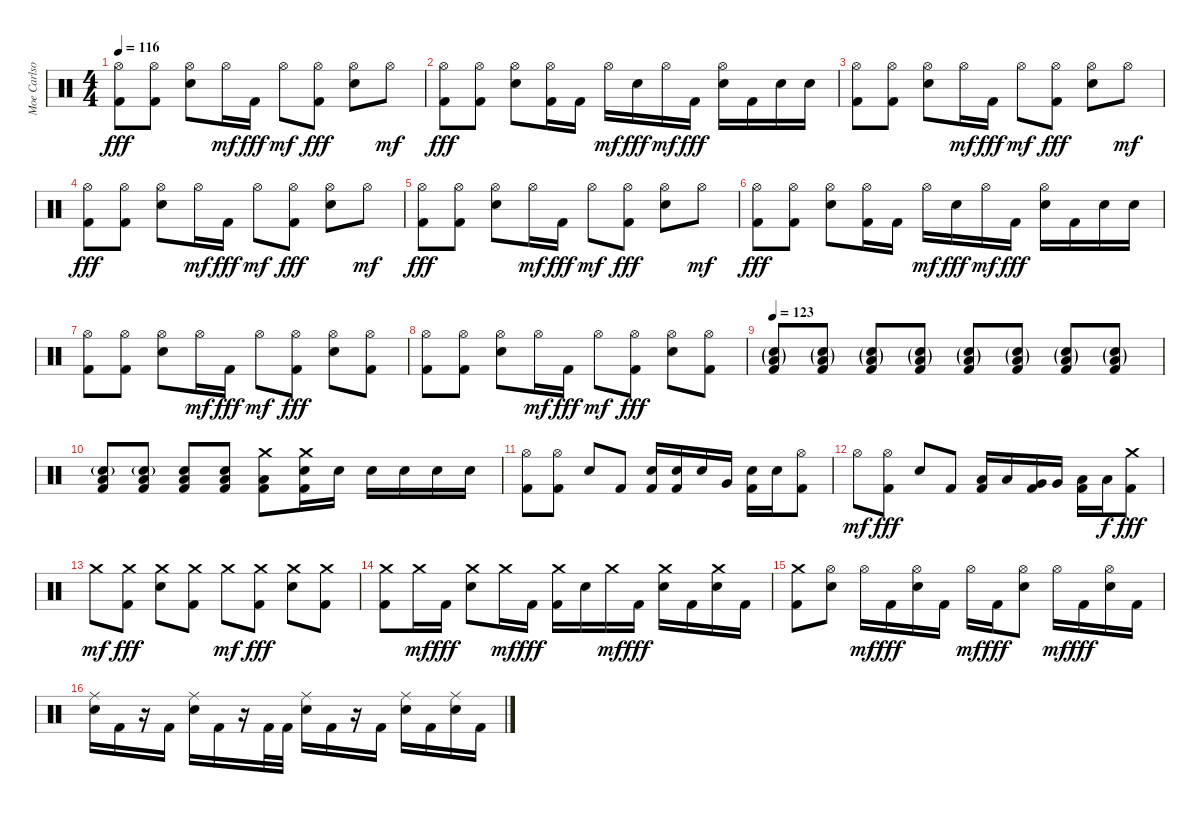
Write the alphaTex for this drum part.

\track ("Moe Carlson" "Moe Carlso") {instrument percussion}
\staff {score}
\articulation defaults
\ts (4 4)
\tempo 116
\clef neutral
\ks c
("Hi-Hat (open)" "Kick (hit) 2").8{dy fff} ("Hi-Hat (open)" "Kick (hit) 2").8 ("Hi-Hat (open)" "Electric Snare (hit)").8 "Hi-Hat (open)".16{dy mf} "Kick (hit) 2".16{dy fff} "Hi-Hat (open)".8{dy mf} ("Hi-Hat (open)" "Kick (hit) 2").8{dy fff} ("Hi-Hat (open)" "Electric Snare (hit)").8 "Hi-Hat (open)".8{dy mf} |
("Hi-Hat (open)" "Kick (hit) 2").8{dy fff} ("Hi-Hat (open)" "Kick (hit) 2").8 ("Hi-Hat (open)" "Electric Snare (hit)").8 ("Hi-Hat (open)" "Kick (hit) 2").16 "Kick (hit) 2".16 "Hi-Hat (open)".16{dy mf} "Electric Snare (hit)".16{dy fff} "Hi-Hat (open)".16{dy mf} "Kick (hit) 2".16{dy fff} ("Hi-Hat (open)" "Electric Snare (hit)").16 "Kick (hit) 2".16 "Electric Snare (hit)".16 "Electric Snare (hit)".16 |
("Hi-Hat (open)" "Kick (hit) 2").8 ("Hi-Hat (open)" "Kick (hit) 2").8 ("Hi-Hat (open)" "Electric Snare (hit)").8 "Hi-Hat (open)".16{dy mf} "Kick (hit) 2".16{dy fff} "Hi-Hat (open)".8{dy mf} ("Hi-Hat (open)" "Kick (hit) 2").8{dy fff} ("Hi-Hat (open)" "Electric Snare (hit)").8 "Hi-Hat (open)".8{dy mf} |
("Hi-Hat (open)" "Kick (hit) 2").8{dy fff} ("Hi-Hat (open)" "Kick (hit) 2").8 ("Hi-Hat (open)" "Electric Snare (hit)").8 "Hi-Hat (open)".16{dy mf} "Kick (hit) 2".16{dy fff} "Hi-Hat (open)".8{dy mf} ("Hi-Hat (open)" "Kick (hit) 2").8{dy fff} ("Hi-Hat (open)" "Electric Snare (hit)").8 "Hi-Hat (open)".8{dy mf} |
("Hi-Hat (open)" "Kick (hit) 2").8{dy fff} ("Hi-Hat (open)" "Kick (hit) 2").8 ("Hi-Hat (open)" "Electric Snare (hit)").8 "Hi-Hat (open)".16{dy mf} "Kick (hit) 2".16{dy fff} "Hi-Hat (open)".8{dy mf} ("Hi-Hat (open)" "Kick (hit) 2").8{dy fff} ("Hi-Hat (open)" "Electric Snare (hit)").8 "Hi-Hat (open)".8{dy mf} |
("Hi-Hat (open)" "Kick (hit) 2").8{dy fff} ("Hi-Hat (open)" "Kick (hit) 2").8 ("Hi-Hat (open)" "Electric Snare (hit)").8 ("Hi-Hat (open)" "Kick (hit) 2").16 "Kick (hit) 2".16 "Hi-Hat (open)".16{dy mf} "Electric Snare (hit)".16{dy fff} "Hi-Hat (open)".16{dy mf} "Kick (hit) 2".16{dy fff} ("Hi-Hat (open)" "Electric Snare (hit)").16 "Kick (hit) 2".16 "Electric Snare (hit)".16 "Electric Snare (hit)".16 |
("Hi-Hat (open)" "Kick (hit) 2").8 ("Hi-Hat (open)" "Kick (hit) 2").8 ("Hi-Hat (open)" "Electric Snare (hit)").8 "Hi-Hat (open)".16{dy mf} "Kick (hit) 2".16{dy fff} "Hi-Hat (open)".8{dy mf} ("Hi-Hat (open)" "Kick (hit) 2").8{dy fff} ("Hi-Hat (open)" "Electric Snare (hit)").8 ("Hi-Hat (open)" "Kick (hit) 2").8 |
("Hi-Hat (open)" "Kick (hit) 2").8 ("Hi-Hat (open)" "Kick (hit) 2").8 ("Hi-Hat (open)" "Electric Snare (hit)").8 "Hi-Hat (open)".16{dy mf} "Kick (hit) 2".16{dy fff} "Hi-Hat (open)".8{dy mf} ("Hi-Hat (open)" "Kick (hit) 2").8{dy fff} ("Hi-Hat (open)" "Electric Snare (hit)").8 ("Hi-Hat (open)" "Kick (hit) 2").8 |
\tempo 123
("Electric Snare (hit)"{g} "Low Floor Tom (hit)"{g} "Kick (hit) 2").8 ("Electric Snare (hit)"{g} "Low Floor Tom (hit)"{g} "Kick (hit) 2").8 ("Electric Snare (hit)"{g} "Low Floor Tom (hit)"{g} "Kick (hit) 2").8 ("Electric Snare (hit)"{g} "Low Floor Tom (hit)"{g} "Kick (hit) 2").8 ("Electric Snare (hit)"{g} "Low Floor Tom (hit)"{g} "Kick (hit) 2").8 ("Electric Snare (hit)"{g} "Low Floor Tom (hit)"{g} "Kick (hit) 2").8 ("Electric Snare (hit)"{g} "Low Floor Tom (hit)"{g} "Kick (hit) 2").8 ("Electric Snare (hit)"{g} "Low Floor Tom (hit)"{g} "Kick (hit) 2").8 |
("Electric Snare (hit)"{g} "Low Floor Tom (hit)" "Kick (hit) 2").8 ("Electric Snare (hit)"{g} "Low Floor Tom (hit)" "Kick (hit) 2").8 ("Electric Snare (hit)" "Low Floor Tom (hit)" "Kick (hit) 2").8 ("Electric Snare (hit)" "Low Floor Tom (hit)" "Kick (hit) 2").8 ("Crash medium (hit)" "Low Floor Tom (hit)" "Kick (hit) 2").8 ("Crash medium (hit)" "Electric Snare (hit)" "Kick (hit) 2").16 "Electric Snare (hit)".16 "Electric Snare (hit)".16 "Electric Snare (hit)".16 "Electric Snare (hit)".16 "Electric Snare (hit)".16 |
("Hi-Hat (open)" "Kick (hit) 2").8 ("Hi-Hat (open)" "Kick (hit) 2").8 "Electric Snare (hit)".8 "Kick (hit) 2".8 ("Electric Snare (hit)" "Kick (hit) 2").16 ("Electric Snare (hit)" "Kick (hit) 2").16 "Electric Snare (hit)".16 "Very Low Tom (hit)".16 ("Electric Snare (hit)" "Kick (hit) 2").16 "Electric Snare (hit)".16 ("Hi-Hat (open)" "Kick (hit) 2").8 |
"Hi-Hat (open)".8{dy mf} ("Hi-Hat (open)" "Kick (hit) 2").8{dy fff} "Electric Snare (hit)".8 "Kick (hit) 2".8 ("Low Tom (hit)" "Kick (hit) 2").16 "Low Tom (hit)".16 ("Very Low Tom (hit)" "Kick (hit) 2").16 "Very Low Tom (hit)".16 ("Low Floor Tom (hit)" "Kick (hit) 2").16 "Low Floor Tom (hit)".16{dy f} ("Crash medium (hit)" "Kick (hit) 2").8{dy fff} |
"Crash medium (hit)".8{dy mf} ("Crash medium (hit)" "Kick (hit) 2").8{dy fff} ("Crash medium (hit)" "Electric Snare (hit)").8 ("Crash medium (hit)" "Kick (hit) 2").8 "Crash medium (hit)".8{dy mf} ("Crash medium (hit)" "Kick (hit) 2").8{dy fff} ("Crash medium (hit)" "Electric Snare (hit)").8 ("Crash medium (hit)" "Kick (hit) 2").8 |
("Crash medium (hit)" "Kick (hit) 2").8 "Crash medium (hit)".16{dy mf} "Kick (hit) 2".16{dy fff} ("Crash medium (hit)" "Electric Snare (hit)").8 "Crash medium (hit)".16{dy mf} "Kick (hit) 2".16{dy fff} ("Crash medium (hit)" "Kick (hit) 2").16 "Electric Snare (hit)".16 "Crash medium (hit)".16{dy mf} "Kick (hit) 2".16{dy fff} ("Crash medium (hit)" "Electric Snare (hit)").16 "Kick (hit) 2".16 ("Crash medium (hit)" "Electric Snare (hit)").16 "Kick (hit) 2".16 |
("Crash medium (hit)" "Kick (hit) 2").8 ("Hi-Hat (open)" "Electric Snare (hit)").8 "Hi-Hat (open)".16{dy mf} "Kick (hit) 2".16{dy fff} ("Hi-Hat (open)" "Electric Snare (hit)").16 "Kick (hit) 2".16 "Hi-Hat (open)".16{dy mf} "Kick (hit) 2".16{dy fff} ("Hi-Hat (open)" "Electric Snare (hit)").8 "Hi-Hat (open)".16{dy mf} "Kick (hit) 2".16{dy fff} ("Hi-Hat (open)" "Electric Snare (hit)").16 "Kick (hit) 2".16 |
("Ride (middle)" "Electric Snare (hit)").16 "Kick (hit) 2".16 r.16 "Kick (hit) 2".16 ("Ride (middle)" "Electric Snare (hit)").16 "Kick (hit) 2".16 r.16 "Kick (hit) 2".32 "Kick (hit) 2".32 ("Ride (middle)" "Electric Snare (hit)").16 "Kick (hit) 2".16 r.16 "Kick (hit) 2".16 ("Ride (middle)" "Electric Snare (hit)").16 "Kick (hit) 2".16 ("Ride (middle)" "Electric Snare (hit)").16 "Kick (hit) 2".16
